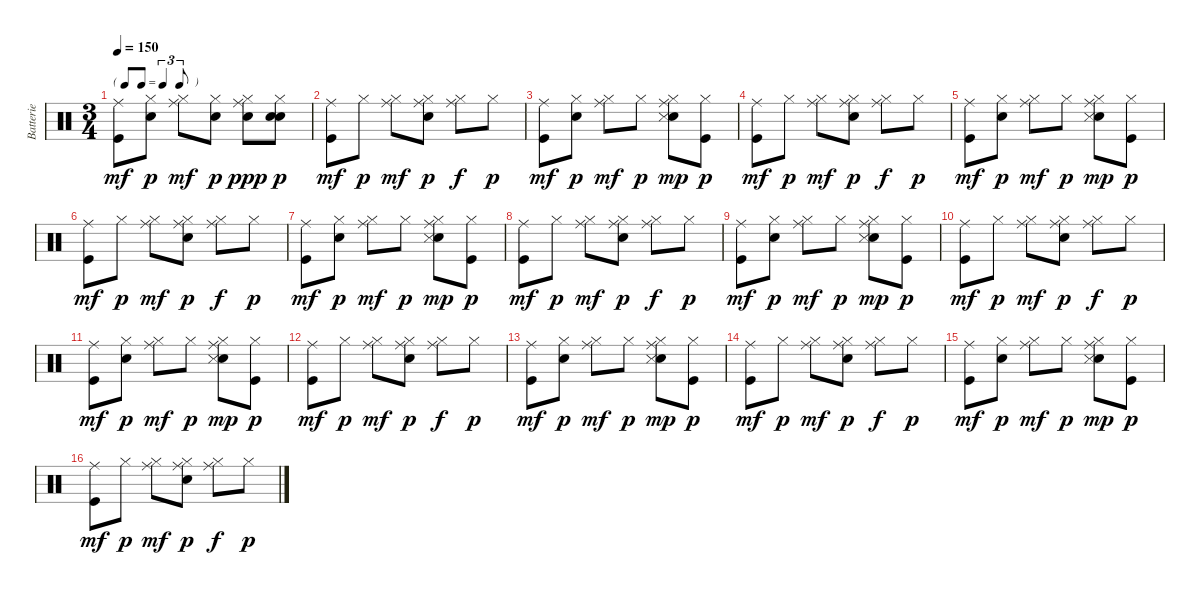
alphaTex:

\track ("Batterie" "Batterie") {instrument percussion}
\staff {score}
\articulation defaults
\ts (3 4)
\tf triplet8th
\tempo 150
\clef neutral
\ks c
("Kick (hit)" "Ride (middle)").8{dy mf} ("Snare (hit) 2" "Hi-Hat (closed)").8{dy p} ("Hi-Hat (closed)" "Ride (middle)").8{dy mf} ("Snare (hit) 2" "Hi-Hat (closed)").8{dy p} ("Snare (hit) 2" "Hi-Hat (closed)" "Ride (middle)").8{dy ppp} ("Snare (hit) 2" "Snare (hit) 2" "Hi-Hat (closed)").8{dy p} |
("Kick (hit)" "Ride (middle)").8{dy mf} "Hi-Hat (closed)".8{dy p} ("Hi-Hat (closed)" "Ride (middle)").8{dy mf} ("Snare (hit) 2" "Hi-Hat (closed)" "Ride (middle)").8{dy p} ("Hi-Hat (closed)" "Ride (middle)").8{dy f} "Hi-Hat (closed)".8{dy p} |
("Kick (hit)" "Ride (middle)").8{dy mf} ("Snare (hit) 2" "Hi-Hat (closed)").8{dy p} ("Hi-Hat (closed)" "Ride (middle)").8{dy mf} "Hi-Hat (closed)".8{dy p} ("Snare (hit) 2" "Hi-Hat (closed)" "Snare (side stick) 3" "Ride (middle)").8{dy mp} ("Kick (hit)" "Hi-Hat (closed)").8{dy p} |
("Kick (hit)" "Ride (middle)").8{dy mf} "Hi-Hat (closed)".8{dy p} ("Hi-Hat (closed)" "Ride (middle)").8{dy mf} ("Snare (hit) 2" "Hi-Hat (closed)" "Ride (middle)").8{dy p} ("Hi-Hat (closed)" "Ride (middle)").8{dy f} "Hi-Hat (closed)".8{dy p} |
("Kick (hit)" "Ride (middle)").8{dy mf} ("Snare (hit) 2" "Hi-Hat (closed)").8{dy p} ("Hi-Hat (closed)" "Ride (middle)").8{dy mf} "Hi-Hat (closed)".8{dy p} ("Snare (hit) 2" "Hi-Hat (closed)" "Snare (side stick) 3" "Ride (middle)").8{dy mp} ("Kick (hit)" "Hi-Hat (closed)").8{dy p} |
("Kick (hit)" "Ride (middle)").8{dy mf} "Hi-Hat (closed)".8{dy p} ("Hi-Hat (closed)" "Ride (middle)").8{dy mf} ("Snare (hit) 2" "Hi-Hat (closed)" "Ride (middle)").8{dy p} ("Hi-Hat (closed)" "Ride (middle)").8{dy f} "Hi-Hat (closed)".8{dy p} |
("Kick (hit)" "Ride (middle)").8{dy mf} ("Snare (hit) 2" "Hi-Hat (closed)").8{dy p} ("Hi-Hat (closed)" "Ride (middle)").8{dy mf} "Hi-Hat (closed)".8{dy p} ("Snare (hit) 2" "Hi-Hat (closed)" "Snare (side stick) 3" "Ride (middle)").8{dy mp} ("Kick (hit)" "Hi-Hat (closed)").8{dy p} |
("Kick (hit)" "Ride (middle)").8{dy mf} "Hi-Hat (closed)".8{dy p} ("Hi-Hat (closed)" "Ride (middle)").8{dy mf} ("Snare (hit) 2" "Hi-Hat (closed)" "Ride (middle)").8{dy p} ("Hi-Hat (closed)" "Ride (middle)").8{dy f} "Hi-Hat (closed)".8{dy p} |
("Kick (hit)" "Ride (middle)").8{dy mf} ("Snare (hit) 2" "Hi-Hat (closed)").8{dy p} ("Hi-Hat (closed)" "Ride (middle)").8{dy mf} "Hi-Hat (closed)".8{dy p} ("Snare (hit) 2" "Hi-Hat (closed)" "Snare (side stick) 3" "Ride (middle)").8{dy mp} ("Kick (hit)" "Hi-Hat (closed)").8{dy p} |
("Kick (hit)" "Ride (middle)").8{dy mf} "Hi-Hat (closed)".8{dy p} ("Hi-Hat (closed)" "Ride (middle)").8{dy mf} ("Snare (hit) 2" "Hi-Hat (closed)" "Ride (middle)").8{dy p} ("Hi-Hat (closed)" "Ride (middle)").8{dy f} "Hi-Hat (closed)".8{dy p} |
("Kick (hit)" "Ride (middle)").8{dy mf} ("Snare (hit) 2" "Hi-Hat (closed)").8{dy p} ("Hi-Hat (closed)" "Ride (middle)").8{dy mf} "Hi-Hat (closed)".8{dy p} ("Snare (hit) 2" "Hi-Hat (closed)" "Snare (side stick) 3" "Ride (middle)").8{dy mp} ("Kick (hit)" "Hi-Hat (closed)").8{dy p} |
("Kick (hit)" "Ride (middle)").8{dy mf} "Hi-Hat (closed)".8{dy p} ("Hi-Hat (closed)" "Ride (middle)").8{dy mf} ("Snare (hit) 2" "Hi-Hat (closed)" "Ride (middle)").8{dy p} ("Hi-Hat (closed)" "Ride (middle)").8{dy f} "Hi-Hat (closed)".8{dy p} |
("Kick (hit)" "Ride (middle)").8{dy mf} ("Snare (hit) 2" "Hi-Hat (closed)").8{dy p} ("Hi-Hat (closed)" "Ride (middle)").8{dy mf} "Hi-Hat (closed)".8{dy p} ("Snare (hit) 2" "Hi-Hat (closed)" "Snare (side stick) 3" "Ride (middle)").8{dy mp} ("Kick (hit)" "Hi-Hat (closed)").8{dy p} |
("Kick (hit)" "Ride (middle)").8{dy mf} "Hi-Hat (closed)".8{dy p} ("Hi-Hat (closed)" "Ride (middle)").8{dy mf} ("Snare (hit) 2" "Hi-Hat (closed)" "Ride (middle)").8{dy p} ("Hi-Hat (closed)" "Ride (middle)").8{dy f} "Hi-Hat (closed)".8{dy p} |
("Kick (hit)" "Ride (middle)").8{dy mf} ("Snare (hit) 2" "Hi-Hat (closed)").8{dy p} ("Hi-Hat (closed)" "Ride (middle)").8{dy mf} "Hi-Hat (closed)".8{dy p} ("Snare (hit) 2" "Hi-Hat (closed)" "Snare (side stick) 3" "Ride (middle)").8{dy mp} ("Kick (hit)" "Hi-Hat (closed)").8{dy p} |
("Kick (hit)" "Ride (middle)").8{dy mf} "Hi-Hat (closed)".8{dy p} ("Hi-Hat (closed)" "Ride (middle)").8{dy mf} ("Snare (hit) 2" "Hi-Hat (closed)" "Ride (middle)").8{dy p} ("Hi-Hat (closed)" "Ride (middle)").8{dy f} "Hi-Hat (closed)".8{dy p}
